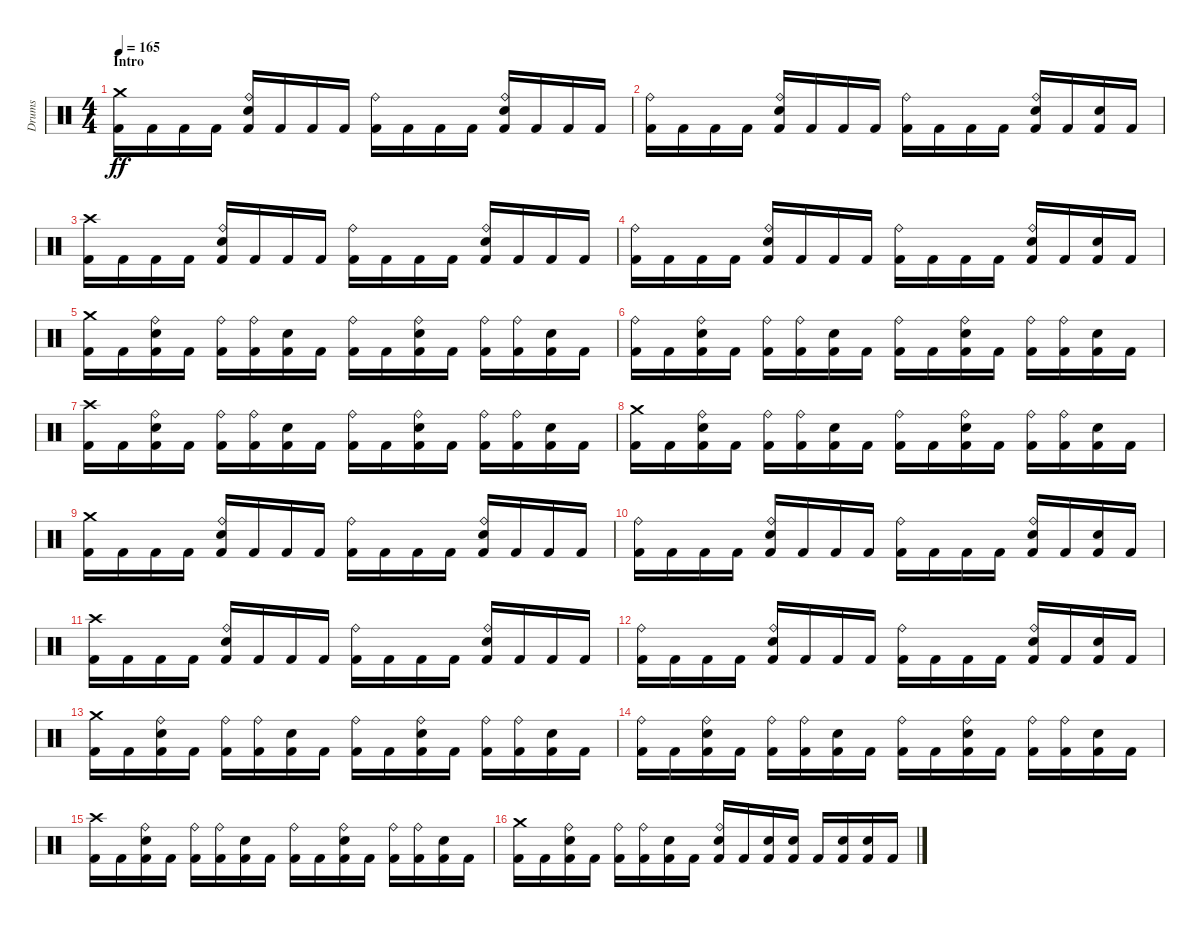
\track ("Drums" "Drums") {instrument percussion}
\staff {score}
\articulation defaults
\ts (4 4)
\section ("" "Intro")
\tempo 165
\clef neutral
\ks c
("Crash medium (hit)" "Kick (hit) 2").16{dy ff} "Kick (hit) 2".16 "Kick (hit) 2".16 "Kick (hit) 2".16 ("Ride (bell)" "Electric Snare (hit)" "Kick (hit) 2").16 "Kick (hit) 2".16 "Kick (hit) 2".16 "Kick (hit) 2".16 ("Ride (bell)" "Kick (hit) 2").16 "Kick (hit) 2".16 "Kick (hit) 2".16 "Kick (hit) 2".16 ("Ride (bell)" "Electric Snare (hit)" "Kick (hit) 2").16 "Kick (hit) 2".16 "Kick (hit) 2".16 "Kick (hit) 2".16 |
("Ride (bell)" "Kick (hit) 2").16 "Kick (hit) 2".16 "Kick (hit) 2".16 "Kick (hit) 2".16 ("Ride (bell)" "Electric Snare (hit)" "Kick (hit) 2").16 "Kick (hit) 2".16 "Kick (hit) 2".16 "Kick (hit) 2".16 ("Ride (bell)" "Kick (hit) 2").16 "Kick (hit) 2".16 "Kick (hit) 2".16 "Kick (hit) 2".16 ("Ride (bell)" "Electric Snare (hit)" "Kick (hit) 2").16 "Kick (hit) 2".16 ("Electric Snare (hit)" "Kick (hit) 2").16 "Kick (hit) 2".16 |
("Crash high (hit)" "Kick (hit) 2").16 "Kick (hit) 2".16 "Kick (hit) 2".16 "Kick (hit) 2".16 ("Ride (bell)" "Electric Snare (hit)" "Kick (hit) 2").16 "Kick (hit) 2".16 "Kick (hit) 2".16 "Kick (hit) 2".16 ("Ride (bell)" "Kick (hit) 2").16 "Kick (hit) 2".16 "Kick (hit) 2".16 "Kick (hit) 2".16 ("Ride (bell)" "Electric Snare (hit)" "Kick (hit) 2").16 "Kick (hit) 2".16 "Kick (hit) 2".16 "Kick (hit) 2".16 |
("Ride (bell)" "Kick (hit) 2").16 "Kick (hit) 2".16 "Kick (hit) 2".16 "Kick (hit) 2".16 ("Ride (bell)" "Electric Snare (hit)" "Kick (hit) 2").16 "Kick (hit) 2".16 "Kick (hit) 2".16 "Kick (hit) 2".16 ("Ride (bell)" "Kick (hit) 2").16 "Kick (hit) 2".16 "Kick (hit) 2".16 "Kick (hit) 2".16 ("Ride (bell)" "Electric Snare (hit)" "Kick (hit) 2").16 "Kick (hit) 2".16 ("Electric Snare (hit)" "Kick (hit) 2").16 "Kick (hit) 2".16 |
("Crash medium (hit)" "Kick (hit) 2").16 "Kick (hit) 2".16 ("Ride (bell)" "Electric Snare (hit)" "Kick (hit) 2").16 "Kick (hit) 2".16 ("Ride (bell)" "Kick (hit) 2").16 ("Ride (bell)" "Kick (hit) 2").16 ("Electric Snare (hit)" "Kick (hit) 2").16 "Kick (hit) 2".16 ("Ride (bell)" "Kick (hit) 2").16 "Kick (hit) 2".16 ("Ride (bell)" "Electric Snare (hit)" "Kick (hit) 2").16 "Kick (hit) 2".16 ("Ride (bell)" "Kick (hit) 2").16 ("Ride (bell)" "Kick (hit) 2").16 ("Electric Snare (hit)" "Kick (hit) 2").16 "Kick (hit) 2".16 |
("Ride (bell)" "Kick (hit) 2").16 "Kick (hit) 2".16 ("Ride (bell)" "Electric Snare (hit)" "Kick (hit) 2").16 "Kick (hit) 2".16 ("Ride (bell)" "Kick (hit) 2").16 ("Ride (bell)" "Kick (hit) 2").16 ("Electric Snare (hit)" "Kick (hit) 2").16 "Kick (hit) 2".16 ("Ride (bell)" "Kick (hit) 2").16 "Kick (hit) 2".16 ("Ride (bell)" "Electric Snare (hit)" "Kick (hit) 2").16 "Kick (hit) 2".16 ("Ride (bell)" "Kick (hit) 2").16 ("Ride (bell)" "Kick (hit) 2").16 ("Electric Snare (hit)" "Kick (hit) 2").16 "Kick (hit) 2".16 |
("Crash high (hit)" "Kick (hit) 2").16 "Kick (hit) 2".16 ("Ride (bell)" "Electric Snare (hit)" "Kick (hit) 2").16 "Kick (hit) 2".16 ("Ride (bell)" "Kick (hit) 2").16 ("Ride (bell)" "Kick (hit) 2").16 ("Electric Snare (hit)" "Kick (hit) 2").16 "Kick (hit) 2".16 ("Ride (bell)" "Kick (hit) 2").16 "Kick (hit) 2".16 ("Ride (bell)" "Electric Snare (hit)" "Kick (hit) 2").16 "Kick (hit) 2".16 ("Ride (bell)" "Kick (hit) 2").16 ("Ride (bell)" "Kick (hit) 2").16 ("Electric Snare (hit)" "Kick (hit) 2").16 "Kick (hit) 2".16 |
("Crash medium (hit)" "Kick (hit) 2").16 "Kick (hit) 2".16 ("Ride (bell)" "Electric Snare (hit)" "Kick (hit) 2").16 "Kick (hit) 2".16 ("Ride (bell)" "Kick (hit) 2").16 ("Ride (bell)" "Kick (hit) 2").16 ("Electric Snare (hit)" "Kick (hit) 2").16 "Kick (hit) 2".16 ("Ride (bell)" "Kick (hit) 2").16 "Kick (hit) 2".16 ("Ride (bell)" "Electric Snare (hit)" "Kick (hit) 2").16 "Kick (hit) 2".16 ("Ride (bell)" "Kick (hit) 2").16 ("Ride (bell)" "Kick (hit) 2").16 ("Electric Snare (hit)" "Kick (hit) 2").16 "Kick (hit) 2".16 |
("Crash medium (hit)" "Kick (hit) 2").16 "Kick (hit) 2".16 "Kick (hit) 2".16 "Kick (hit) 2".16 ("Ride (bell)" "Electric Snare (hit)" "Kick (hit) 2").16 "Kick (hit) 2".16 "Kick (hit) 2".16 "Kick (hit) 2".16 ("Ride (bell)" "Kick (hit) 2").16 "Kick (hit) 2".16 "Kick (hit) 2".16 "Kick (hit) 2".16 ("Ride (bell)" "Electric Snare (hit)" "Kick (hit) 2").16 "Kick (hit) 2".16 "Kick (hit) 2".16 "Kick (hit) 2".16 |
("Ride (bell)" "Kick (hit) 2").16 "Kick (hit) 2".16 "Kick (hit) 2".16 "Kick (hit) 2".16 ("Ride (bell)" "Electric Snare (hit)" "Kick (hit) 2").16 "Kick (hit) 2".16 "Kick (hit) 2".16 "Kick (hit) 2".16 ("Ride (bell)" "Kick (hit) 2").16 "Kick (hit) 2".16 "Kick (hit) 2".16 "Kick (hit) 2".16 ("Ride (bell)" "Electric Snare (hit)" "Kick (hit) 2").16 "Kick (hit) 2".16 ("Electric Snare (hit)" "Kick (hit) 2").16 "Kick (hit) 2".16 |
("Crash high (hit)" "Kick (hit) 2").16 "Kick (hit) 2".16 "Kick (hit) 2".16 "Kick (hit) 2".16 ("Ride (bell)" "Electric Snare (hit)" "Kick (hit) 2").16 "Kick (hit) 2".16 "Kick (hit) 2".16 "Kick (hit) 2".16 ("Ride (bell)" "Kick (hit) 2").16 "Kick (hit) 2".16 "Kick (hit) 2".16 "Kick (hit) 2".16 ("Ride (bell)" "Electric Snare (hit)" "Kick (hit) 2").16 "Kick (hit) 2".16 "Kick (hit) 2".16 "Kick (hit) 2".16 |
("Ride (bell)" "Kick (hit) 2").16 "Kick (hit) 2".16 "Kick (hit) 2".16 "Kick (hit) 2".16 ("Ride (bell)" "Electric Snare (hit)" "Kick (hit) 2").16 "Kick (hit) 2".16 "Kick (hit) 2".16 "Kick (hit) 2".16 ("Ride (bell)" "Kick (hit) 2").16 "Kick (hit) 2".16 "Kick (hit) 2".16 "Kick (hit) 2".16 ("Ride (bell)" "Electric Snare (hit)" "Kick (hit) 2").16 "Kick (hit) 2".16 ("Electric Snare (hit)" "Kick (hit) 2").16 "Kick (hit) 2".16 |
("Crash medium (hit)" "Kick (hit) 2").16 "Kick (hit) 2".16 ("Ride (bell)" "Electric Snare (hit)" "Kick (hit) 2").16 "Kick (hit) 2".16 ("Ride (bell)" "Kick (hit) 2").16 ("Ride (bell)" "Kick (hit) 2").16 ("Electric Snare (hit)" "Kick (hit) 2").16 "Kick (hit) 2".16 ("Ride (bell)" "Kick (hit) 2").16 "Kick (hit) 2".16 ("Ride (bell)" "Electric Snare (hit)" "Kick (hit) 2").16 "Kick (hit) 2".16 ("Ride (bell)" "Kick (hit) 2").16 ("Ride (bell)" "Kick (hit) 2").16 ("Electric Snare (hit)" "Kick (hit) 2").16 "Kick (hit) 2".16 |
("Ride (bell)" "Kick (hit) 2").16 "Kick (hit) 2".16 ("Ride (bell)" "Electric Snare (hit)" "Kick (hit) 2").16 "Kick (hit) 2".16 ("Ride (bell)" "Kick (hit) 2").16 ("Ride (bell)" "Kick (hit) 2").16 ("Electric Snare (hit)" "Kick (hit) 2").16 "Kick (hit) 2".16 ("Ride (bell)" "Kick (hit) 2").16 "Kick (hit) 2".16 ("Ride (bell)" "Electric Snare (hit)" "Kick (hit) 2").16 "Kick (hit) 2".16 ("Ride (bell)" "Kick (hit) 2").16 ("Ride (bell)" "Kick (hit) 2").16 ("Electric Snare (hit)" "Kick (hit) 2").16 "Kick (hit) 2".16 |
("Crash high (hit)" "Kick (hit) 2").16 "Kick (hit) 2".16 ("Ride (bell)" "Electric Snare (hit)" "Kick (hit) 2").16 "Kick (hit) 2".16 ("Ride (bell)" "Kick (hit) 2").16 ("Ride (bell)" "Kick (hit) 2").16 ("Electric Snare (hit)" "Kick (hit) 2").16 "Kick (hit) 2".16 ("Ride (bell)" "Kick (hit) 2").16 "Kick (hit) 2".16 ("Ride (bell)" "Electric Snare (hit)" "Kick (hit) 2").16 "Kick (hit) 2".16 ("Ride (bell)" "Kick (hit) 2").16 ("Ride (bell)" "Kick (hit) 2").16 ("Electric Snare (hit)" "Kick (hit) 2").16 "Kick (hit) 2".16 |
("Crash medium (hit)" "Kick (hit) 2").16 "Kick (hit) 2".16 ("Ride (bell)" "Electric Snare (hit)" "Kick (hit) 2").16 "Kick (hit) 2".16 ("Ride (bell)" "Kick (hit) 2").16 ("Ride (bell)" "Kick (hit) 2").16 ("Electric Snare (hit)" "Kick (hit) 2").16 "Kick (hit) 2".16 ("Ride (bell)" "Electric Snare (hit)" "Kick (hit) 2").16 "Kick (hit) 2".16 ("Electric Snare (hit)" "Kick (hit) 2").16 ("Electric Snare (hit)" "Kick (hit) 2").16 "Kick (hit) 2".16 ("Electric Snare (hit)" "Kick (hit) 2").16 ("Electric Snare (hit)" "Kick (hit) 2").16 "Kick (hit) 2".16
